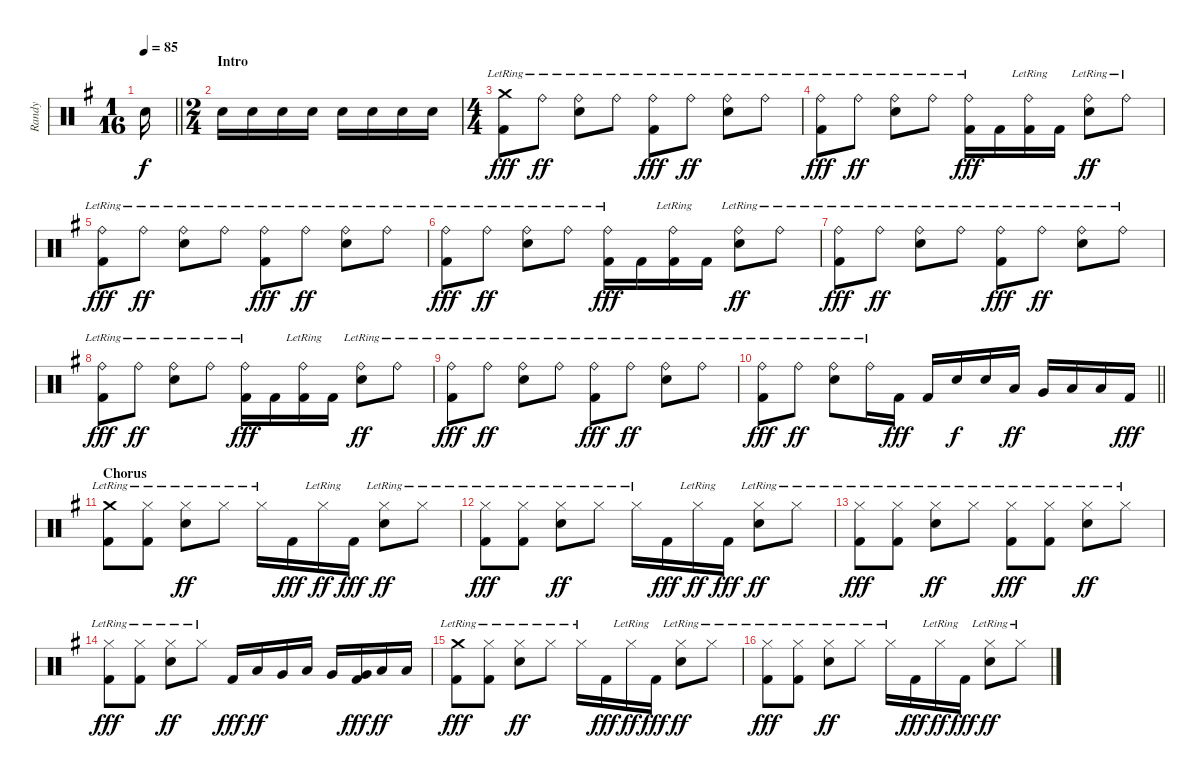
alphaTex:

\track ("Randy" "Randy") {instrument percussion}
\staff {score}
\articulation defaults
\ts (1 16)
\tempo 85
\clef neutral
\barLineRight lightlight
\ks g "Snare (hit) 2".16{dy f}
|
\ts (2 4)
\section ("" "Intro")
"Snare (hit) 2".16 "Snare (hit) 2".16 "Snare (hit) 2".16 "Snare (hit) 2".16 "Snare (hit) 2".16 "Snare (hit) 2".16 "Snare (hit) 2".16 "Snare (hit) 2".16 |
\ts (4 4)
("Crash medium (hit)"{lr} "Kick (hit) 2").8{dy fff} "Ride (bell)"{lr}.8{dy ff} ("Ride (bell)"{lr} "Snare (hit) 2").8 "Ride (bell)"{lr}.8 ("Ride (bell)"{lr} "Kick (hit) 2").8{dy fff} "Ride (bell)"{lr}.8{dy ff} ("Ride (bell)"{lr} "Snare (hit) 2").8 "Ride (bell)"{lr}.8 |
("Ride (bell)"{lr} "Kick (hit) 2").8{dy fff} "Ride (bell)"{lr}.8{dy ff} ("Ride (bell)"{lr} "Snare (hit) 2").8 "Ride (bell)"{lr}.8 ("Ride (bell)"{lr} "Kick (hit) 2").16{dy fff} "Kick (hit) 2".16 ("Ride (bell)"{lr} "Kick (hit) 2").16 "Kick (hit) 2".16 ("Ride (bell)"{lr} "Snare (hit) 2").8{dy ff} "Ride (bell)"{lr}.8 |
("Ride (bell)"{lr} "Kick (hit) 2").8{dy fff} "Ride (bell)"{lr}.8{dy ff} ("Ride (bell)"{lr} "Snare (hit) 2").8 "Ride (bell)"{lr}.8 ("Ride (bell)"{lr} "Kick (hit) 2").8{dy fff} "Ride (bell)"{lr}.8{dy ff} ("Ride (bell)"{lr} "Snare (hit) 2").8 "Ride (bell)"{lr}.8 |
("Ride (bell)"{lr} "Kick (hit) 2").8{dy fff} "Ride (bell)"{lr}.8{dy ff} ("Ride (bell)"{lr} "Snare (hit) 2").8 "Ride (bell)"{lr}.8 ("Ride (bell)"{lr} "Kick (hit) 2").16{dy fff} "Kick (hit) 2".16 ("Ride (bell)"{lr} "Kick (hit) 2").16 "Kick (hit) 2".16 ("Ride (bell)"{lr} "Snare (hit) 2").8{dy ff} "Ride (bell)"{lr}.8 |
("Ride (bell)"{lr} "Kick (hit) 2").8{dy fff} "Ride (bell)"{lr}.8{dy ff} ("Ride (bell)"{lr} "Snare (hit) 2").8 "Ride (bell)"{lr}.8 ("Ride (bell)"{lr} "Kick (hit) 2").8{dy fff} "Ride (bell)"{lr}.8{dy ff} ("Ride (bell)"{lr} "Snare (hit) 2").8 "Ride (bell)"{lr}.8 |
("Ride (bell)"{lr} "Kick (hit) 2").8{dy fff} "Ride (bell)"{lr}.8{dy ff} ("Ride (bell)"{lr} "Snare (hit) 2").8 "Ride (bell)"{lr}.8 ("Ride (bell)"{lr} "Kick (hit) 2").16{dy fff} "Kick (hit) 2".16 ("Ride (bell)"{lr} "Kick (hit) 2").16 "Kick (hit) 2".16 ("Ride (bell)"{lr} "Snare (hit) 2").8{dy ff} "Ride (bell)"{lr}.8 |
("Ride (bell)"{lr} "Kick (hit) 2").8{dy fff} "Ride (bell)"{lr}.8{dy ff} ("Ride (bell)"{lr} "Snare (hit) 2").8 "Ride (bell)"{lr}.8 ("Ride (bell)"{lr} "Kick (hit) 2").8{dy fff} "Ride (bell)"{lr}.8{dy ff} ("Ride (bell)"{lr} "Snare (hit) 2").8 "Ride (bell)"{lr}.8 |
\barLineRight lightlight
("Ride (bell)"{lr} "Kick (hit) 2").8{dy fff} "Ride (bell)"{lr}.8{dy ff} ("Ride (bell)"{lr} "Snare (hit) 2").8 "Ride (bell)"{lr}.16 "Kick (hit) 2".16{dy fff} "Kick (hit) 2".16 "Snare (hit) 2".16{dy f} "Snare (hit) 2".16 "Low Tom (hit)".16{dy ff} "Very Low Tom (hit)".16 "Low Floor Tom (hit)".16 "Low Floor Tom (hit)".16 "Kick (hit) 2".16{dy fff} |
\section ("" "Chorus")
("Crash medium (hit)"{lr} "Kick (hit) 2").8 ("Hi-Hat (closed)"{lr} "Kick (hit) 2").8 ("Hi-Hat (closed)"{lr} "Snare (hit) 2").8{dy ff} "Hi-Hat (closed)"{lr}.8 "Hi-Hat (closed)"{lr}.16 "Kick (hit) 2".16{dy fff} "Hi-Hat (closed)"{lr}.16{dy ff} "Kick (hit) 2".16{dy fff} ("Hi-Hat (closed)"{lr} "Snare (hit) 2").8{dy ff} "Hi-Hat (closed)"{lr}.8 |
("Hi-Hat (closed)"{lr} "Kick (hit) 2").8{dy fff} ("Hi-Hat (closed)"{lr} "Kick (hit) 2").8 ("Hi-Hat (closed)"{lr} "Snare (hit) 2").8{dy ff} "Hi-Hat (closed)"{lr}.8 "Hi-Hat (closed)"{lr}.16 "Kick (hit) 2".16{dy fff} "Hi-Hat (closed)"{lr}.16{dy ff} "Kick (hit) 2".16{dy fff} ("Hi-Hat (closed)"{lr} "Snare (hit) 2").8{dy ff} "Hi-Hat (closed)"{lr}.8 |
("Hi-Hat (closed)"{lr} "Kick (hit) 2").8{dy fff} ("Hi-Hat (closed)"{lr} "Kick (hit) 2").8 ("Hi-Hat (closed)"{lr} "Snare (hit) 2").8{dy ff} "Hi-Hat (closed)"{lr}.8 ("Hi-Hat (closed)"{lr} "Kick (hit) 2").8{dy fff} ("Hi-Hat (closed)"{lr} "Kick (hit) 2").8 ("Hi-Hat (closed)"{lr} "Snare (hit) 2").8{dy ff} "Hi-Hat (closed)"{lr}.8 |
("Hi-Hat (closed)"{lr} "Kick (hit) 2").8{dy fff} ("Hi-Hat (closed)"{lr} "Kick (hit) 2").8 ("Hi-Hat (closed)"{lr} "Snare (hit) 2").8{dy ff} "Hi-Hat (closed)"{lr}.8 "Kick (hit) 2".16{dy fff} "Low Tom (hit)".16{dy ff} "Very Low Tom (hit)".16 "Low Tom (hit)".16 "Very Low Tom (hit)".16 ("Very Low Tom (hit)" "Kick (hit) 2").16{dy fff} "Low Floor Tom (hit)".16{dy ff} "Low Floor Tom (hit)".16 |
("Crash medium (hit)"{lr} "Kick (hit) 2").8{dy fff} ("Hi-Hat (closed)"{lr} "Kick (hit) 2").8 ("Hi-Hat (closed)"{lr} "Snare (hit) 2").8{dy ff} "Hi-Hat (closed)"{lr}.8 "Hi-Hat (closed)"{lr}.16 "Kick (hit) 2".16{dy fff} "Hi-Hat (closed)"{lr}.16{dy ff} "Kick (hit) 2".16{dy fff} ("Hi-Hat (closed)"{lr} "Snare (hit) 2").8{dy ff} "Hi-Hat (closed)"{lr}.8 |
("Hi-Hat (closed)"{lr} "Kick (hit) 2").8{dy fff} ("Hi-Hat (closed)"{lr} "Kick (hit) 2").8 ("Hi-Hat (closed)"{lr} "Snare (hit) 2").8{dy ff} "Hi-Hat (closed)"{lr}.8 "Hi-Hat (closed)"{lr}.16 "Kick (hit) 2".16{dy fff} "Hi-Hat (closed)"{lr}.16{dy ff} "Kick (hit) 2".16{dy fff} ("Hi-Hat (closed)"{lr} "Snare (hit) 2").8{dy ff} "Hi-Hat (closed)"{lr}.8
